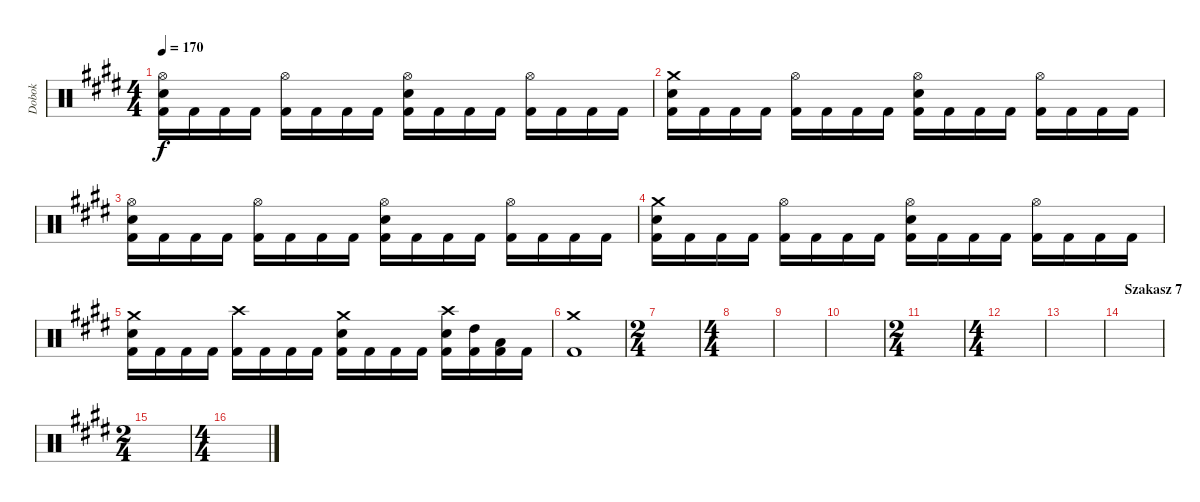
\track ("Dobok" "Dobok") {instrument percussion}
\staff {score}
\articulation defaults
\ts (4 4)
\tempo 170
\clef neutral
\ks c#minor
("Hi-Hat (open)" "Snare (hit) 2" "Kick (hit) 2").16{dy f} "Kick (hit) 2".16 "Kick (hit) 2".16 "Kick (hit) 2".16 ("Hi-Hat (open)" "Kick (hit) 2").16 "Kick (hit) 2".16 "Kick (hit) 2".16 "Kick (hit) 2".16 ("Hi-Hat (open)" "Snare (hit) 2" "Kick (hit) 2").16 "Kick (hit) 2".16 "Kick (hit) 2".16 "Kick (hit) 2".16 ("Hi-Hat (open)" "Kick (hit) 2").16 "Kick (hit) 2".16 "Kick (hit) 2".16 "Kick (hit) 2".16 |
("Crash medium (hit)" "Snare (hit) 2" "Kick (hit) 2").16 "Kick (hit) 2".16 "Kick (hit) 2".16 "Kick (hit) 2".16 ("Hi-Hat (open)" "Kick (hit) 2").16 "Kick (hit) 2".16 "Kick (hit) 2".16 "Kick (hit) 2".16 ("Hi-Hat (open)" "Snare (hit) 2" "Kick (hit) 2").16 "Kick (hit) 2".16 "Kick (hit) 2".16 "Kick (hit) 2".16 ("Hi-Hat (open)" "Kick (hit) 2").16 "Kick (hit) 2".16 "Kick (hit) 2".16 "Kick (hit) 2".16 |
("Hi-Hat (open)" "Snare (hit) 2" "Kick (hit) 2").16 "Kick (hit) 2".16 "Kick (hit) 2".16 "Kick (hit) 2".16 ("Hi-Hat (open)" "Kick (hit) 2").16 "Kick (hit) 2".16 "Kick (hit) 2".16 "Kick (hit) 2".16 ("Hi-Hat (open)" "Snare (hit) 2" "Kick (hit) 2").16 "Kick (hit) 2".16 "Kick (hit) 2".16 "Kick (hit) 2".16 ("Hi-Hat (open)" "Kick (hit) 2").16 "Kick (hit) 2".16 "Kick (hit) 2".16 "Kick (hit) 2".16 |
("Crash medium (hit)" "Snare (hit) 2" "Kick (hit) 2").16 "Kick (hit) 2".16 "Kick (hit) 2".16 "Kick (hit) 2".16 ("Hi-Hat (open)" "Kick (hit) 2").16 "Kick (hit) 2".16 "Kick (hit) 2".16 "Kick (hit) 2".16 ("Hi-Hat (open)" "Snare (hit) 2" "Kick (hit) 2").16 "Kick (hit) 2".16 "Kick (hit) 2".16 "Kick (hit) 2".16 ("Hi-Hat (open)" "Kick (hit) 2").16 "Kick (hit) 2".16 "Kick (hit) 2".16 "Kick (hit) 2".16 |
("Crash medium (hit)" "Snare (hit) 2" "Kick (hit) 2").16 "Kick (hit) 2".16 "Kick (hit) 2".16 "Kick (hit) 2".16 ("Crash high (hit)" "Kick (hit) 2").16 "Kick (hit) 2".16 "Kick (hit) 2".16 "Kick (hit) 2".16 ("Crash medium (hit)" "Snare (hit) 2" "Kick (hit) 2").16 "Kick (hit) 2".16 "Kick (hit) 2".16 "Kick (hit) 2".16 ("Crash high (hit)" "Snare (hit) 2" "Kick (hit) 2").16 ("High Tom (hit)" "Kick (hit) 2").16 ("Low Tom (hit)" "Kick (hit) 2").16 "Kick (hit) 2".16 |
("Crash medium (hit)" "Kick (hit) 2").1 |
\ts (2 4)
|
\ts (4 4)
|
|
|
\ts (2 4)
|
\ts (4 4)
|
|
\section ("" "Szakasz 7")
|
\ts (2 4)
|
\ts (4 4)
